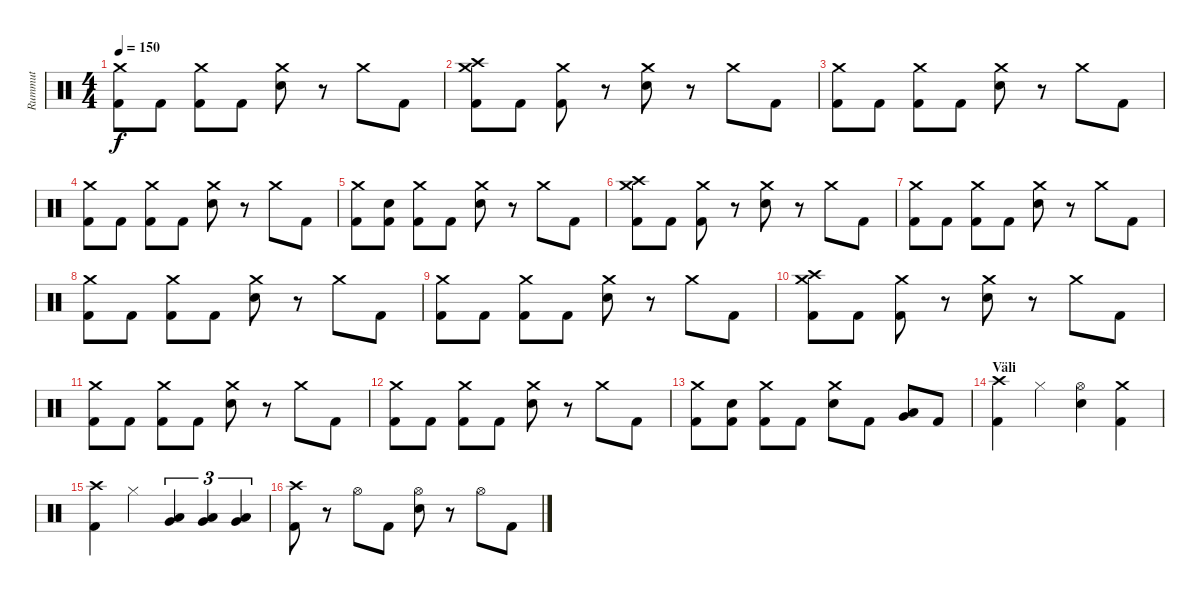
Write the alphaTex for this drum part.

\track ("Rummut" "Rummut") {instrument percussion}
\staff {score}
\articulation defaults
\ts (4 4)
\tempo 150
\clef neutral
\ks c
("Crash medium (hit)" "Kick (hit) 2").8{dy f} "Kick (hit) 2".8 ("Crash medium (hit)" "Kick (hit) 2").8 "Kick (hit) 2".8 ("Crash medium (hit)" "Snare (hit) 2").8 r.8 "Crash medium (hit)".8 "Kick (hit) 2".8 |
("Crash high (hit)" "Crash medium (hit)" "Kick (hit) 2").8 "Kick (hit) 2".8 ("Crash medium (hit)" "Kick (hit) 2").8 r.8 ("Crash medium (hit)" "Snare (hit) 2").8 r.8 "Crash medium (hit)".8 "Kick (hit) 2".8 |
("Crash medium (hit)" "Kick (hit) 2").8 "Kick (hit) 2".8 ("Crash medium (hit)" "Kick (hit) 2").8 "Kick (hit) 2".8 ("Crash medium (hit)" "Snare (hit) 2").8 r.8 "Crash medium (hit)".8 "Kick (hit) 2".8 |
("Crash medium (hit)" "Kick (hit) 2").8 "Kick (hit) 2".8 ("Crash medium (hit)" "Kick (hit) 2").8 "Kick (hit) 2".8 ("Crash medium (hit)" "Snare (hit) 2").8 r.8 "Crash medium (hit)".8 "Kick (hit) 2".8 |
("Crash medium (hit)" "Kick (hit) 2").8 ("Snare (hit) 2" "Kick (hit) 2").8 ("Crash medium (hit)" "Kick (hit) 2").8 "Kick (hit) 2".8 ("Crash medium (hit)" "Snare (hit) 2").8 r.8 "Crash medium (hit)".8 "Kick (hit) 2".8 |
("Crash high (hit)" "Crash medium (hit)" "Kick (hit) 2").8 "Kick (hit) 2".8 ("Crash medium (hit)" "Kick (hit) 2").8 r.8 ("Crash medium (hit)" "Snare (hit) 2").8 r.8 "Crash medium (hit)".8 "Kick (hit) 2".8 |
("Crash medium (hit)" "Kick (hit) 2").8 "Kick (hit) 2".8 ("Crash medium (hit)" "Kick (hit) 2").8 "Kick (hit) 2".8 ("Crash medium (hit)" "Snare (hit) 2").8 r.8 "Crash medium (hit)".8 "Kick (hit) 2".8 |
("Crash medium (hit)" "Kick (hit) 2").8 "Kick (hit) 2".8 ("Crash medium (hit)" "Kick (hit) 2").8 "Kick (hit) 2".8 ("Crash medium (hit)" "Snare (hit) 2").8 r.8 "Crash medium (hit)".8 "Kick (hit) 2".8 |
("Crash medium (hit)" "Kick (hit) 2").8 "Kick (hit) 2".8 ("Crash medium (hit)" "Kick (hit) 2").8 "Kick (hit) 2".8 ("Crash medium (hit)" "Snare (hit) 2").8 r.8 "Crash medium (hit)".8 "Kick (hit) 2".8 |
("Crash high (hit)" "Crash medium (hit)" "Kick (hit) 2").8 "Kick (hit) 2".8 ("Crash medium (hit)" "Kick (hit) 2").8 r.8 ("Crash medium (hit)" "Snare (hit) 2").8 r.8 "Crash medium (hit)".8 "Kick (hit) 2".8 |
("Crash medium (hit)" "Kick (hit) 2").8 "Kick (hit) 2".8 ("Crash medium (hit)" "Kick (hit) 2").8 "Kick (hit) 2".8 ("Crash medium (hit)" "Snare (hit) 2").8 r.8 "Crash medium (hit)".8 "Kick (hit) 2".8 |
("Crash medium (hit)" "Kick (hit) 2").8 "Kick (hit) 2".8 ("Crash medium (hit)" "Kick (hit) 2").8 "Kick (hit) 2".8 ("Crash medium (hit)" "Snare (hit) 2").8 r.8 "Crash medium (hit)".8 "Kick (hit) 2".8 |
("Crash medium (hit)" "Kick (hit) 2").8 ("Snare (hit) 2" "Kick (hit) 2").8 ("Crash medium (hit)" "Kick (hit) 2").8 "Kick (hit) 2".8 ("Crash medium (hit)" "Snare (hit) 2").8 "Kick (hit) 2".8 ("Low Tom (hit)" "Very Low Tom (hit)").8 "Kick (hit) 2".8 |
\section ("" "Väli")
("Crash high (hit)" "Kick (hit) 2").4 "Hi-Hat (closed)".4 ("Hi-Hat (open)" "Snare (hit) 2").4 ("Crash medium (hit)" "Kick (hit) 2").4 |
("Crash high (hit)" "Kick (hit) 2").4 "Hi-Hat (closed)".4 ("Low Tom (hit)" "Very Low Tom (hit)").4{tu (3 2)} ("Very Low Tom (hit)" "Low Floor Tom (hit)").4{tu (3 2)} ("Very Low Tom (hit)" "Low Floor Tom (hit)").4{tu (3 2)} |
("Crash high (hit)" "Kick (hit) 2").8 r.8 "Hi-Hat (open)".8 "Kick (hit) 2".8 ("Hi-Hat (open)" "Snare (hit) 2").8 r.8 "Hi-Hat (open)".8 "Kick (hit) 2".8
